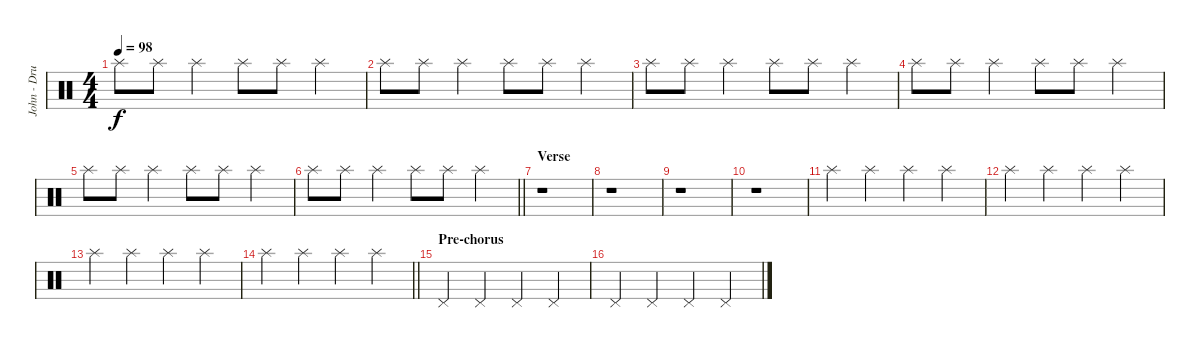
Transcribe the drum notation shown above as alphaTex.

\track ("John - Drums" "John - Dru") {instrument percussion}
\staff {score}
\articulation defaults
\ts (4 4)
\tempo 98
\clef neutral
\ks c "Splash (hit)".8{dy f} "Splash (hit)".8 "Splash (hit)".4 "Splash (hit)".8 "Splash (hit)".8 "Splash (hit)".4
|
"Splash (hit)".8 "Splash (hit)".8 "Splash (hit)".4 "Splash (hit)".8 "Splash (hit)".8 "Splash (hit)".4 |
"Splash (hit)".8 "Splash (hit)".8 "Splash (hit)".4 "Splash (hit)".8 "Splash (hit)".8 "Splash (hit)".4 |
"Splash (hit)".8 "Splash (hit)".8 "Splash (hit)".4 "Splash (hit)".8 "Splash (hit)".8 "Splash (hit)".4 |
"Splash (hit)".8 "Splash (hit)".8 "Splash (hit)".4 "Splash (hit)".8 "Splash (hit)".8 "Splash (hit)".4 |
\barLineRight lightlight "Splash (hit)".8 "Splash (hit)".8 "Splash (hit)".4 "Splash (hit)".8 "Splash (hit)".8 "Splash (hit)".4
|
\section ("" "Verse")
r.1 |
r.1 |
r.1 |
r.1 |
"Splash (hit)".4 "Splash (hit)".4 "Splash (hit)".4 "Splash (hit)".4 |
"Splash (hit)".4 "Splash (hit)".4 "Splash (hit)".4 "Splash (hit)".4 |
"Splash (hit)".4 "Splash (hit)".4 "Splash (hit)".4 "Splash (hit)".4 |
\barLineRight lightlight "Splash (hit)".4 "Splash (hit)".4 "Splash (hit)".4 "Splash (hit)".4
|
\section ("" "Pre-chorus")
"Pedal Hi-Hat (hit)".4 "Pedal Hi-Hat (hit)".4 "Pedal Hi-Hat (hit)".4 "Pedal Hi-Hat (hit)".4 |
"Pedal Hi-Hat (hit)".4 "Pedal Hi-Hat (hit)".4 "Pedal Hi-Hat (hit)".4 "Pedal Hi-Hat (hit)".4
